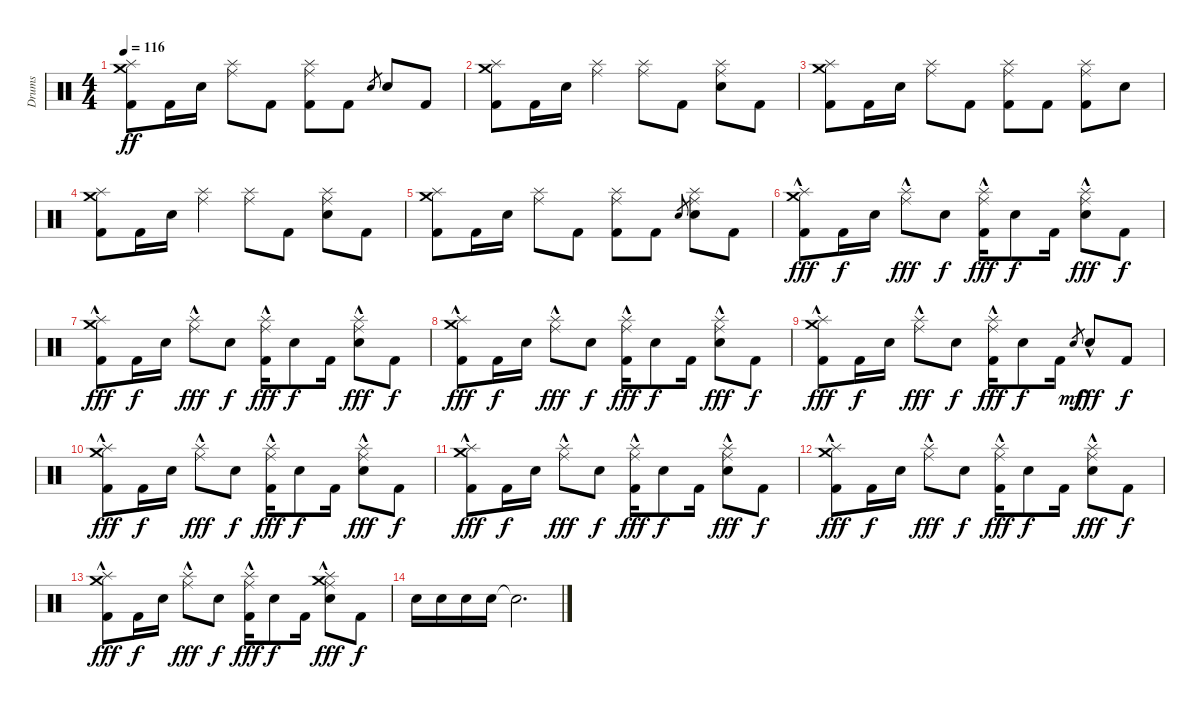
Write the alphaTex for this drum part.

\track ("Drums" "Drums") {instrument percussion}
\staff {score}
\articulation defaults
\ts (4 4)
\tempo 116
\clef neutral
\ks c
("Crash medium (hit)" "Splash (hit)" "Kick (hit) 2").8{dy ff} "Kick (hit) 2".16 "Electric Snare (hit)".16 ("Ride (middle)" "Splash (hit)").8 "Kick (hit) 2".8 ("Ride (middle)" "Splash (hit)" "Kick (hit) 2").8 "Kick (hit) 2".8 "Electric Snare (hit)".8{gr} "Electric Snare (hit)".8 "Kick (hit) 2".8 |
("Crash medium (hit)" "Splash (hit)" "Kick (hit) 2").8 "Kick (hit) 2".16 "Electric Snare (hit)".16 ("Ride (middle)" "Splash (hit)").4 ("Ride (middle)" "Splash (hit)").8 "Kick (hit) 2".8 ("Ride (middle)" "Splash (hit)" "Electric Snare (hit)").8 "Kick (hit) 2".8 |
("Crash medium (hit)" "Splash (hit)" "Kick (hit) 2").8 "Kick (hit) 2".16 "Electric Snare (hit)".16 ("Ride (middle)" "Splash (hit)").8 "Kick (hit) 2".8 ("Ride (middle)" "Splash (hit)" "Kick (hit) 2").8 "Kick (hit) 2".8 ("Ride (middle)" "Splash (hit)" "Kick (hit) 2").8 "Electric Snare (hit)".8 |
("Crash medium (hit)" "Splash (hit)" "Kick (hit) 2").8 "Kick (hit) 2".16 "Electric Snare (hit)".16 ("Ride (middle)" "Splash (hit)").4 ("Ride (middle)" "Splash (hit)").8 "Kick (hit) 2".8 ("Ride (middle)" "Splash (hit)" "Electric Snare (hit)").8 "Kick (hit) 2".8 |
("Crash medium (hit)" "Splash (hit)" "Kick (hit) 2").8 "Kick (hit) 2".16 "Electric Snare (hit)".16 ("Ride (middle)" "Splash (hit)").8 "Kick (hit) 2".8 ("Ride (middle)" "Splash (hit)" "Kick (hit) 2").8 "Kick (hit) 2".8 "Electric Snare (hit)".8{gr} ("Ride (middle)" "Splash (hit)" "Electric Snare (hit)").8 "Kick (hit) 2".8 |
("Crash medium (hit)" "Splash (hit)"{hac} "Kick (hit) 2").8{dy fff volume 13} "Kick (hit) 2".16{dy f} "Electric Snare (hit)".16 ("Ride (middle)" "Splash (hit)"{hac}).8{dy fff} "Electric Snare (hit)".8{dy f} ("Ride (middle)" "Splash (hit)"{hac} "Kick (hit) 2").16{dy fff} "Electric Snare (hit)".8{dy f} "Kick (hit) 2".16 ("Ride (middle)" "Splash (hit)"{hac} "Electric Snare (hit)").8{dy fff} "Kick (hit) 2".8{dy f} |
("Crash medium (hit)" "Splash (hit)"{hac} "Kick (hit) 2").8{dy fff} "Kick (hit) 2".16{dy f} "Electric Snare (hit)".16 ("Ride (middle)" "Splash (hit)"{hac}).8{dy fff} "Electric Snare (hit)".8{dy f} ("Ride (middle)" "Splash (hit)"{hac} "Kick (hit) 2").16{dy fff} "Electric Snare (hit)".8{dy f} "Kick (hit) 2".16 ("Ride (middle)" "Splash (hit)"{hac} "Electric Snare (hit)").8{dy fff} "Kick (hit) 2".8{dy f} |
("Crash medium (hit)" "Splash (hit)"{hac} "Kick (hit) 2").8{dy fff} "Kick (hit) 2".16{dy f} "Electric Snare (hit)".16 ("Ride (middle)" "Splash (hit)"{hac}).8{dy fff} "Electric Snare (hit)".8{dy f} ("Ride (middle)" "Splash (hit)"{hac} "Kick (hit) 2").16{dy fff} "Electric Snare (hit)".8{dy f} "Kick (hit) 2".16 ("Ride (middle)" "Splash (hit)"{hac} "Electric Snare (hit)").8{dy fff} "Kick (hit) 2".8{dy f} |
("Crash medium (hit)" "Splash (hit)"{hac} "Kick (hit) 2").8{dy fff} "Kick (hit) 2".16{dy f} "Electric Snare (hit)".16 ("Ride (middle)" "Splash (hit)"{hac}).8{dy fff} "Electric Snare (hit)".8{dy f} ("Ride (middle)" "Splash (hit)"{hac} "Kick (hit) 2").16{dy fff} "Electric Snare (hit)".8{dy f} "Kick (hit) 2".16 "Electric Snare (hit)".8{gr dy mf} "Electric Snare (hit)"{hac}.8{dy fff} "Kick (hit) 2".8{dy f} |
("Crash medium (hit)" "Splash (hit)"{hac} "Kick (hit) 2").8{dy fff} "Kick (hit) 2".16{dy f} "Electric Snare (hit)".16 ("Ride (middle)" "Splash (hit)"{hac}).8{dy fff} "Electric Snare (hit)".8{dy f} ("Ride (middle)" "Splash (hit)"{hac} "Kick (hit) 2").16{dy fff} "Electric Snare (hit)".8{dy f} "Kick (hit) 2".16 ("Ride (middle)" "Splash (hit)"{hac} "Electric Snare (hit)").8{dy fff} "Kick (hit) 2".8{dy f} |
("Crash medium (hit)" "Splash (hit)"{hac} "Kick (hit) 2").8{dy fff} "Kick (hit) 2".16{dy f} "Electric Snare (hit)".16 ("Ride (middle)" "Splash (hit)"{hac}).8{dy fff} "Electric Snare (hit)".8{dy f} ("Ride (middle)" "Splash (hit)"{hac} "Kick (hit) 2").16{dy fff} "Electric Snare (hit)".8{dy f} "Kick (hit) 2".16 ("Ride (middle)" "Splash (hit)"{hac} "Electric Snare (hit)").8{dy fff} "Kick (hit) 2".8{dy f} |
("Crash medium (hit)" "Splash (hit)"{hac} "Kick (hit) 2").8{dy fff} "Kick (hit) 2".16{dy f} "Electric Snare (hit)".16 ("Ride (middle)" "Splash (hit)"{hac}).8{dy fff} "Electric Snare (hit)".8{dy f} ("Ride (middle)" "Splash (hit)"{hac} "Kick (hit) 2").16{dy fff} "Electric Snare (hit)".8{dy f} "Kick (hit) 2".16 ("Ride (middle)" "Splash (hit)"{hac} "Electric Snare (hit)").8{dy fff} "Kick (hit) 2".8{dy f} |
("Crash medium (hit)" "Splash (hit)"{hac} "Kick (hit) 2").8{dy fff} "Kick (hit) 2".16{dy f} "Electric Snare (hit)".16 ("Ride (middle)" "Splash (hit)"{hac}).8{dy fff} "Electric Snare (hit)".8{dy f} ("Ride (middle)" "Splash (hit)"{hac} "Kick (hit) 2").16{dy fff} "Electric Snare (hit)".8{dy f} "Kick (hit) 2".16 ("Crash medium (hit)"{hac} "Ride (middle)"{hac} "Splash (hit)"{hac} "Electric Snare (hit)").8{dy fff} "Kick (hit) 2".8{dy f} |
"Electric Snare (hit)".16 "Electric Snare (hit)".16 "Electric Snare (hit)".16 "Electric Snare (hit)".16 "Snare (hit)"{t}.2{d}
